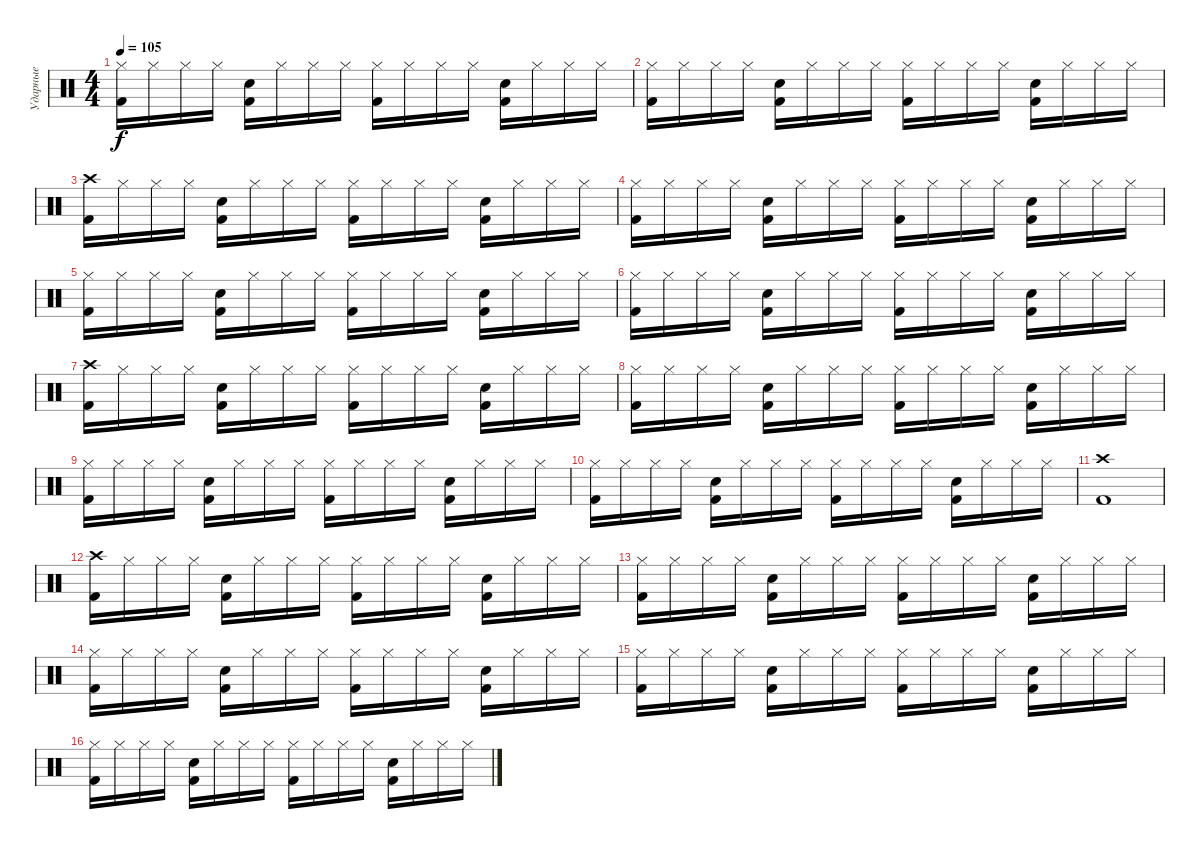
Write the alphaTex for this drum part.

\track ("Ударные" "Ударные") {instrument percussion}
\staff {score}
\articulation defaults
\ts (4 4)
\tempo 105
\clef neutral
\ks c
("Hi-Hat (closed)" "Kick (hit) 2").16{dy f} "Hi-Hat (closed)".16 "Hi-Hat (closed)".16 "Hi-Hat (closed)".16 ("Kick (hit) 2" "Electric Snare (hit)").16 "Hi-Hat (closed)".16 "Hi-Hat (closed)".16 "Hi-Hat (closed)".16 ("Hi-Hat (closed)" "Kick (hit) 2").16 "Hi-Hat (closed)".16 "Hi-Hat (closed)".16 "Hi-Hat (closed)".16 ("Kick (hit) 2" "Electric Snare (hit)").16 "Hi-Hat (closed)".16 "Hi-Hat (closed)".16 "Hi-Hat (closed)".16 |
("Hi-Hat (closed)" "Kick (hit) 2").16 "Hi-Hat (closed)".16 "Hi-Hat (closed)".16 "Hi-Hat (closed)".16 ("Kick (hit) 2" "Electric Snare (hit)").16 "Hi-Hat (closed)".16 "Hi-Hat (closed)".16 "Hi-Hat (closed)".16 ("Hi-Hat (closed)" "Kick (hit) 2").16 "Hi-Hat (closed)".16 "Hi-Hat (closed)".16 "Hi-Hat (closed)".16 ("Kick (hit) 2" "Electric Snare (hit)").16 "Hi-Hat (closed)".16 "Hi-Hat (closed)".16 "Hi-Hat (closed)".16 |
("Crash high (hit)" "Kick (hit) 2").16 "Hi-Hat (closed)".16 "Hi-Hat (closed)".16 "Hi-Hat (closed)".16 ("Kick (hit) 2" "Electric Snare (hit)").16 "Hi-Hat (closed)".16 "Hi-Hat (closed)".16 "Hi-Hat (closed)".16 ("Hi-Hat (closed)" "Kick (hit) 2").16 "Hi-Hat (closed)".16 "Hi-Hat (closed)".16 "Hi-Hat (closed)".16 ("Kick (hit) 2" "Electric Snare (hit)").16 "Hi-Hat (closed)".16 "Hi-Hat (closed)".16 "Hi-Hat (closed)".16 |
("Hi-Hat (closed)" "Kick (hit) 2").16 "Hi-Hat (closed)".16 "Hi-Hat (closed)".16 "Hi-Hat (closed)".16 ("Kick (hit) 2" "Electric Snare (hit)").16 "Hi-Hat (closed)".16 "Hi-Hat (closed)".16 "Hi-Hat (closed)".16 ("Hi-Hat (closed)" "Kick (hit) 2").16 "Hi-Hat (closed)".16 "Hi-Hat (closed)".16 "Hi-Hat (closed)".16 ("Kick (hit) 2" "Electric Snare (hit)").16 "Hi-Hat (closed)".16 "Hi-Hat (closed)".16 "Hi-Hat (closed)".16 |
("Hi-Hat (closed)" "Kick (hit) 2").16 "Hi-Hat (closed)".16 "Hi-Hat (closed)".16 "Hi-Hat (closed)".16 ("Kick (hit) 2" "Electric Snare (hit)").16 "Hi-Hat (closed)".16 "Hi-Hat (closed)".16 "Hi-Hat (closed)".16 ("Hi-Hat (closed)" "Kick (hit) 2").16 "Hi-Hat (closed)".16 "Hi-Hat (closed)".16 "Hi-Hat (closed)".16 ("Kick (hit) 2" "Electric Snare (hit)").16 "Hi-Hat (closed)".16 "Hi-Hat (closed)".16 "Hi-Hat (closed)".16 |
("Hi-Hat (closed)" "Kick (hit) 2").16 "Hi-Hat (closed)".16 "Hi-Hat (closed)".16 "Hi-Hat (closed)".16 ("Kick (hit) 2" "Electric Snare (hit)").16 "Hi-Hat (closed)".16 "Hi-Hat (closed)".16 "Hi-Hat (closed)".16 ("Hi-Hat (closed)" "Kick (hit) 2").16 "Hi-Hat (closed)".16 "Hi-Hat (closed)".16 "Hi-Hat (closed)".16 ("Kick (hit) 2" "Electric Snare (hit)").16 "Hi-Hat (closed)".16 "Hi-Hat (closed)".16 "Hi-Hat (closed)".16 |
("Crash high (hit)" "Kick (hit) 2").16 "Hi-Hat (closed)".16 "Hi-Hat (closed)".16 "Hi-Hat (closed)".16 ("Kick (hit) 2" "Electric Snare (hit)").16 "Hi-Hat (closed)".16 "Hi-Hat (closed)".16 "Hi-Hat (closed)".16 ("Hi-Hat (closed)" "Kick (hit) 2").16 "Hi-Hat (closed)".16 "Hi-Hat (closed)".16 "Hi-Hat (closed)".16 ("Kick (hit) 2" "Electric Snare (hit)").16 "Hi-Hat (closed)".16 "Hi-Hat (closed)".16 "Hi-Hat (closed)".16 |
("Hi-Hat (closed)" "Kick (hit) 2").16 "Hi-Hat (closed)".16 "Hi-Hat (closed)".16 "Hi-Hat (closed)".16 ("Kick (hit) 2" "Electric Snare (hit)").16 "Hi-Hat (closed)".16 "Hi-Hat (closed)".16 "Hi-Hat (closed)".16 ("Hi-Hat (closed)" "Kick (hit) 2").16 "Hi-Hat (closed)".16 "Hi-Hat (closed)".16 "Hi-Hat (closed)".16 ("Kick (hit) 2" "Electric Snare (hit)").16 "Hi-Hat (closed)".16 "Hi-Hat (closed)".16 "Hi-Hat (closed)".16 |
("Hi-Hat (closed)" "Kick (hit) 2").16 "Hi-Hat (closed)".16 "Hi-Hat (closed)".16 "Hi-Hat (closed)".16 ("Kick (hit) 2" "Electric Snare (hit)").16 "Hi-Hat (closed)".16 "Hi-Hat (closed)".16 "Hi-Hat (closed)".16 ("Hi-Hat (closed)" "Kick (hit) 2").16 "Hi-Hat (closed)".16 "Hi-Hat (closed)".16 "Hi-Hat (closed)".16 ("Kick (hit) 2" "Electric Snare (hit)").16 "Hi-Hat (closed)".16 "Hi-Hat (closed)".16 "Hi-Hat (closed)".16 |
("Hi-Hat (closed)" "Kick (hit) 2").16 "Hi-Hat (closed)".16 "Hi-Hat (closed)".16 "Hi-Hat (closed)".16 ("Kick (hit) 2" "Electric Snare (hit)").16 "Hi-Hat (closed)".16 "Hi-Hat (closed)".16 "Hi-Hat (closed)".16 ("Hi-Hat (closed)" "Kick (hit) 2").16 "Hi-Hat (closed)".16 "Hi-Hat (closed)".16 "Hi-Hat (closed)".16 ("Kick (hit) 2" "Electric Snare (hit)").16 "Hi-Hat (closed)".16 "Hi-Hat (closed)".16 "Hi-Hat (closed)".16 |
("Crash high (hit)" "Kick (hit) 2").1 |
("Crash high (hit)" "Kick (hit) 2").16 "Hi-Hat (closed)".16 "Hi-Hat (closed)".16 "Hi-Hat (closed)".16 ("Kick (hit) 2" "Electric Snare (hit)").16 "Hi-Hat (closed)".16 "Hi-Hat (closed)".16 "Hi-Hat (closed)".16 ("Hi-Hat (closed)" "Kick (hit) 2").16 "Hi-Hat (closed)".16 "Hi-Hat (closed)".16 "Hi-Hat (closed)".16 ("Kick (hit) 2" "Electric Snare (hit)").16 "Hi-Hat (closed)".16 "Hi-Hat (closed)".16 "Hi-Hat (closed)".16 |
("Hi-Hat (closed)" "Kick (hit) 2").16 "Hi-Hat (closed)".16 "Hi-Hat (closed)".16 "Hi-Hat (closed)".16 ("Kick (hit) 2" "Electric Snare (hit)").16 "Hi-Hat (closed)".16 "Hi-Hat (closed)".16 "Hi-Hat (closed)".16 ("Hi-Hat (closed)" "Kick (hit) 2").16 "Hi-Hat (closed)".16 "Hi-Hat (closed)".16 "Hi-Hat (closed)".16 ("Kick (hit) 2" "Electric Snare (hit)").16 "Hi-Hat (closed)".16 "Hi-Hat (closed)".16 "Hi-Hat (closed)".16 |
("Hi-Hat (closed)" "Kick (hit) 2").16 "Hi-Hat (closed)".16 "Hi-Hat (closed)".16 "Hi-Hat (closed)".16 ("Kick (hit) 2" "Electric Snare (hit)").16 "Hi-Hat (closed)".16 "Hi-Hat (closed)".16 "Hi-Hat (closed)".16 ("Hi-Hat (closed)" "Kick (hit) 2").16 "Hi-Hat (closed)".16 "Hi-Hat (closed)".16 "Hi-Hat (closed)".16 ("Kick (hit) 2" "Electric Snare (hit)").16 "Hi-Hat (closed)".16 "Hi-Hat (closed)".16 "Hi-Hat (closed)".16 |
("Hi-Hat (closed)" "Kick (hit) 2").16 "Hi-Hat (closed)".16 "Hi-Hat (closed)".16 "Hi-Hat (closed)".16 ("Kick (hit) 2" "Electric Snare (hit)").16 "Hi-Hat (closed)".16 "Hi-Hat (closed)".16 "Hi-Hat (closed)".16 ("Hi-Hat (closed)" "Kick (hit) 2").16 "Hi-Hat (closed)".16 "Hi-Hat (closed)".16 "Hi-Hat (closed)".16 ("Kick (hit) 2" "Electric Snare (hit)").16 "Hi-Hat (closed)".16 "Hi-Hat (closed)".16 "Hi-Hat (closed)".16 |
("Hi-Hat (closed)" "Kick (hit) 2").16 "Hi-Hat (closed)".16 "Hi-Hat (closed)".16 "Hi-Hat (closed)".16 ("Kick (hit) 2" "Electric Snare (hit)").16 "Hi-Hat (closed)".16 "Hi-Hat (closed)".16 "Hi-Hat (closed)".16 ("Hi-Hat (closed)" "Kick (hit) 2").16 "Hi-Hat (closed)".16 "Hi-Hat (closed)".16 "Hi-Hat (closed)".16 ("Kick (hit) 2" "Electric Snare (hit)").16 "Hi-Hat (closed)".16 "Hi-Hat (closed)".16 "Hi-Hat (closed)".16
